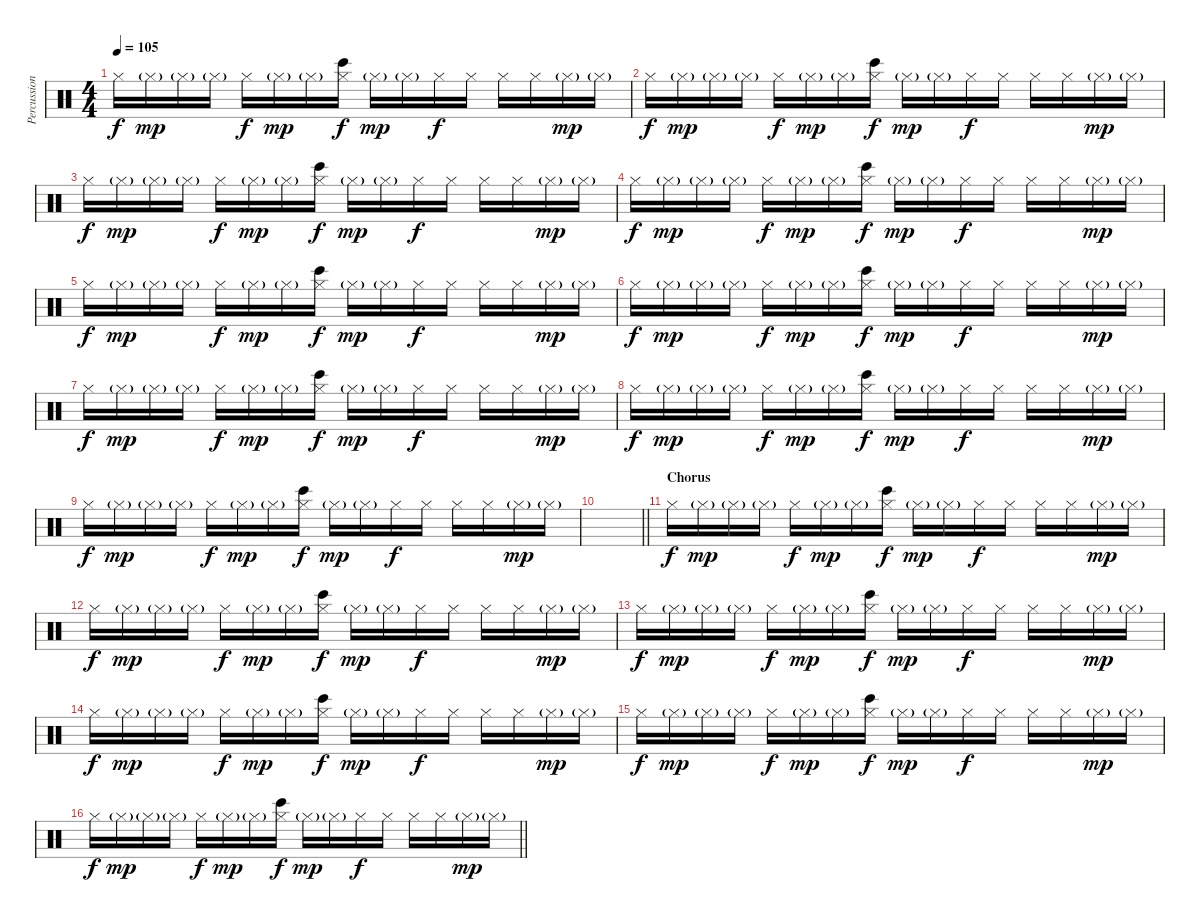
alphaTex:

\track ("Percussions and Arrangements" "Percussion") {instrument percussion}
\staff {score}
\articulation defaults
\ts (4 4)
\tempo 105
\clef neutral
\ks c "Hi-Hat (closed)".16{dy f} "Hi-Hat (closed)"{g}.16{dy mp} "Hi-Hat (closed)"{g}.16 "Hi-Hat (closed)"{g}.16 "Hi-Hat (closed)".16{dy f} "Hi-Hat (closed)"{g}.16{dy mp} "Hi-Hat (closed)"{g}.16
("Hi-Hat (closed)" "Bongo High (hit)").16{dy f} "Hi-Hat (closed)"{g}.16{dy mp} "Hi-Hat (closed)"{g}.16 "Hi-Hat (closed)".16{dy f} "Hi-Hat (closed)".16 "Hi-Hat (closed)".16 "Hi-Hat (closed)".16 "Hi-Hat (closed)"{g}.16{dy mp} "Hi-Hat (closed)"{g}.16 |
"Hi-Hat (closed)".16{dy f} "Hi-Hat (closed)"{g}.16{dy mp} "Hi-Hat (closed)"{g}.16 "Hi-Hat (closed)"{g}.16 "Hi-Hat (closed)".16{dy f} "Hi-Hat (closed)"{g}.16{dy mp} "Hi-Hat (closed)"{g}.16 ("Hi-Hat (closed)" "Bongo High (hit)").16{dy f} "Hi-Hat (closed)"{g}.16{dy mp} "Hi-Hat (closed)"{g}.16 "Hi-Hat (closed)".16{dy f} "Hi-Hat (closed)".16 "Hi-Hat (closed)".16 "Hi-Hat (closed)".16 "Hi-Hat (closed)"{g}.16{dy mp} "Hi-Hat (closed)"{g}.16 |
"Hi-Hat (closed)".16{dy f} "Hi-Hat (closed)"{g}.16{dy mp} "Hi-Hat (closed)"{g}.16 "Hi-Hat (closed)"{g}.16 "Hi-Hat (closed)".16{dy f} "Hi-Hat (closed)"{g}.16{dy mp} "Hi-Hat (closed)"{g}.16 ("Hi-Hat (closed)" "Bongo High (hit)").16{dy f} "Hi-Hat (closed)"{g}.16{dy mp} "Hi-Hat (closed)"{g}.16 "Hi-Hat (closed)".16{dy f} "Hi-Hat (closed)".16 "Hi-Hat (closed)".16 "Hi-Hat (closed)".16 "Hi-Hat (closed)"{g}.16{dy mp} "Hi-Hat (closed)"{g}.16 |
"Hi-Hat (closed)".16{dy f} "Hi-Hat (closed)"{g}.16{dy mp} "Hi-Hat (closed)"{g}.16 "Hi-Hat (closed)"{g}.16 "Hi-Hat (closed)".16{dy f} "Hi-Hat (closed)"{g}.16{dy mp} "Hi-Hat (closed)"{g}.16 ("Hi-Hat (closed)" "Bongo High (hit)").16{dy f} "Hi-Hat (closed)"{g}.16{dy mp} "Hi-Hat (closed)"{g}.16 "Hi-Hat (closed)".16{dy f} "Hi-Hat (closed)".16 "Hi-Hat (closed)".16 "Hi-Hat (closed)".16 "Hi-Hat (closed)"{g}.16{dy mp} "Hi-Hat (closed)"{g}.16 |
"Hi-Hat (closed)".16{dy f} "Hi-Hat (closed)"{g}.16{dy mp} "Hi-Hat (closed)"{g}.16 "Hi-Hat (closed)"{g}.16 "Hi-Hat (closed)".16{dy f} "Hi-Hat (closed)"{g}.16{dy mp} "Hi-Hat (closed)"{g}.16 ("Hi-Hat (closed)" "Bongo High (hit)").16{dy f} "Hi-Hat (closed)"{g}.16{dy mp} "Hi-Hat (closed)"{g}.16 "Hi-Hat (closed)".16{dy f} "Hi-Hat (closed)".16 "Hi-Hat (closed)".16 "Hi-Hat (closed)".16 "Hi-Hat (closed)"{g}.16{dy mp} "Hi-Hat (closed)"{g}.16 |
"Hi-Hat (closed)".16{dy f} "Hi-Hat (closed)"{g}.16{dy mp} "Hi-Hat (closed)"{g}.16 "Hi-Hat (closed)"{g}.16 "Hi-Hat (closed)".16{dy f} "Hi-Hat (closed)"{g}.16{dy mp} "Hi-Hat (closed)"{g}.16 ("Hi-Hat (closed)" "Bongo High (hit)").16{dy f} "Hi-Hat (closed)"{g}.16{dy mp} "Hi-Hat (closed)"{g}.16 "Hi-Hat (closed)".16{dy f} "Hi-Hat (closed)".16 "Hi-Hat (closed)".16 "Hi-Hat (closed)".16 "Hi-Hat (closed)"{g}.16{dy mp} "Hi-Hat (closed)"{g}.16 |
"Hi-Hat (closed)".16{dy f} "Hi-Hat (closed)"{g}.16{dy mp} "Hi-Hat (closed)"{g}.16 "Hi-Hat (closed)"{g}.16 "Hi-Hat (closed)".16{dy f} "Hi-Hat (closed)"{g}.16{dy mp} "Hi-Hat (closed)"{g}.16 ("Hi-Hat (closed)" "Bongo High (hit)").16{dy f} "Hi-Hat (closed)"{g}.16{dy mp} "Hi-Hat (closed)"{g}.16 "Hi-Hat (closed)".16{dy f} "Hi-Hat (closed)".16 "Hi-Hat (closed)".16 "Hi-Hat (closed)".16 "Hi-Hat (closed)"{g}.16{dy mp} "Hi-Hat (closed)"{g}.16 |
"Hi-Hat (closed)".16{dy f} "Hi-Hat (closed)"{g}.16{dy mp} "Hi-Hat (closed)"{g}.16 "Hi-Hat (closed)"{g}.16 "Hi-Hat (closed)".16{dy f} "Hi-Hat (closed)"{g}.16{dy mp} "Hi-Hat (closed)"{g}.16 ("Hi-Hat (closed)" "Bongo High (hit)").16{dy f} "Hi-Hat (closed)"{g}.16{dy mp} "Hi-Hat (closed)"{g}.16 "Hi-Hat (closed)".16{dy f} "Hi-Hat (closed)".16 "Hi-Hat (closed)".16 "Hi-Hat (closed)".16 "Hi-Hat (closed)"{g}.16{dy mp} "Hi-Hat (closed)"{g}.16 |
"Hi-Hat (closed)".16{dy f} "Hi-Hat (closed)"{g}.16{dy mp} "Hi-Hat (closed)"{g}.16 "Hi-Hat (closed)"{g}.16 "Hi-Hat (closed)".16{dy f} "Hi-Hat (closed)"{g}.16{dy mp} "Hi-Hat (closed)"{g}.16 ("Hi-Hat (closed)" "Bongo High (hit)").16{dy f} "Hi-Hat (closed)"{g}.16{dy mp} "Hi-Hat (closed)"{g}.16 "Hi-Hat (closed)".16{dy f} "Hi-Hat (closed)".16 "Hi-Hat (closed)".16 "Hi-Hat (closed)".16 "Hi-Hat (closed)"{g}.16{dy mp} "Hi-Hat (closed)"{g}.16 |
\barLineRight lightlight
|
\section ("" "Chorus")
"Hi-Hat (closed)".16{dy f} "Hi-Hat (closed)"{g}.16{dy mp} "Hi-Hat (closed)"{g}.16 "Hi-Hat (closed)"{g}.16 "Hi-Hat (closed)".16{dy f} "Hi-Hat (closed)"{g}.16{dy mp} "Hi-Hat (closed)"{g}.16 ("Hi-Hat (closed)" "Bongo High (hit)").16{dy f} "Hi-Hat (closed)"{g}.16{dy mp} "Hi-Hat (closed)"{g}.16 "Hi-Hat (closed)".16{dy f} "Hi-Hat (closed)".16 "Hi-Hat (closed)".16 "Hi-Hat (closed)".16 "Hi-Hat (closed)"{g}.16{dy mp} "Hi-Hat (closed)"{g}.16 |
"Hi-Hat (closed)".16{dy f} "Hi-Hat (closed)"{g}.16{dy mp} "Hi-Hat (closed)"{g}.16 "Hi-Hat (closed)"{g}.16 "Hi-Hat (closed)".16{dy f} "Hi-Hat (closed)"{g}.16{dy mp} "Hi-Hat (closed)"{g}.16 ("Hi-Hat (closed)" "Bongo High (hit)").16{dy f} "Hi-Hat (closed)"{g}.16{dy mp} "Hi-Hat (closed)"{g}.16 "Hi-Hat (closed)".16{dy f} "Hi-Hat (closed)".16 "Hi-Hat (closed)".16 "Hi-Hat (closed)".16 "Hi-Hat (closed)"{g}.16{dy mp} "Hi-Hat (closed)"{g}.16 |
"Hi-Hat (closed)".16{dy f} "Hi-Hat (closed)"{g}.16{dy mp} "Hi-Hat (closed)"{g}.16 "Hi-Hat (closed)"{g}.16 "Hi-Hat (closed)".16{dy f} "Hi-Hat (closed)"{g}.16{dy mp} "Hi-Hat (closed)"{g}.16 ("Hi-Hat (closed)" "Bongo High (hit)").16{dy f} "Hi-Hat (closed)"{g}.16{dy mp} "Hi-Hat (closed)"{g}.16 "Hi-Hat (closed)".16{dy f} "Hi-Hat (closed)".16 "Hi-Hat (closed)".16 "Hi-Hat (closed)".16 "Hi-Hat (closed)"{g}.16{dy mp} "Hi-Hat (closed)"{g}.16 |
"Hi-Hat (closed)".16{dy f} "Hi-Hat (closed)"{g}.16{dy mp} "Hi-Hat (closed)"{g}.16 "Hi-Hat (closed)"{g}.16 "Hi-Hat (closed)".16{dy f} "Hi-Hat (closed)"{g}.16{dy mp} "Hi-Hat (closed)"{g}.16 ("Hi-Hat (closed)" "Bongo High (hit)").16{dy f} "Hi-Hat (closed)"{g}.16{dy mp} "Hi-Hat (closed)"{g}.16 "Hi-Hat (closed)".16{dy f} "Hi-Hat (closed)".16 "Hi-Hat (closed)".16 "Hi-Hat (closed)".16 "Hi-Hat (closed)"{g}.16{dy mp} "Hi-Hat (closed)"{g}.16 |
"Hi-Hat (closed)".16{dy f} "Hi-Hat (closed)"{g}.16{dy mp} "Hi-Hat (closed)"{g}.16 "Hi-Hat (closed)"{g}.16 "Hi-Hat (closed)".16{dy f} "Hi-Hat (closed)"{g}.16{dy mp} "Hi-Hat (closed)"{g}.16 ("Hi-Hat (closed)" "Bongo High (hit)").16{dy f} "Hi-Hat (closed)"{g}.16{dy mp} "Hi-Hat (closed)"{g}.16 "Hi-Hat (closed)".16{dy f} "Hi-Hat (closed)".16 "Hi-Hat (closed)".16 "Hi-Hat (closed)".16 "Hi-Hat (closed)"{g}.16{dy mp} "Hi-Hat (closed)"{g}.16 |
\barLineRight lightlight "Hi-Hat (closed)".16{dy f} "Hi-Hat (closed)"{g}.16{dy mp} "Hi-Hat (closed)"{g}.16 "Hi-Hat (closed)"{g}.16 "Hi-Hat (closed)".16{dy f} "Hi-Hat (closed)"{g}.16{dy mp} "Hi-Hat (closed)"{g}.16
("Hi-Hat (closed)" "Bongo High (hit)").16{dy f} "Hi-Hat (closed)"{g}.16{dy mp} "Hi-Hat (closed)"{g}.16 "Hi-Hat (closed)".16{dy f} "Hi-Hat (closed)".16 "Hi-Hat (closed)".16 "Hi-Hat (closed)".16 "Hi-Hat (closed)"{g}.16{dy mp} "Hi-Hat (closed)"{g}.16
